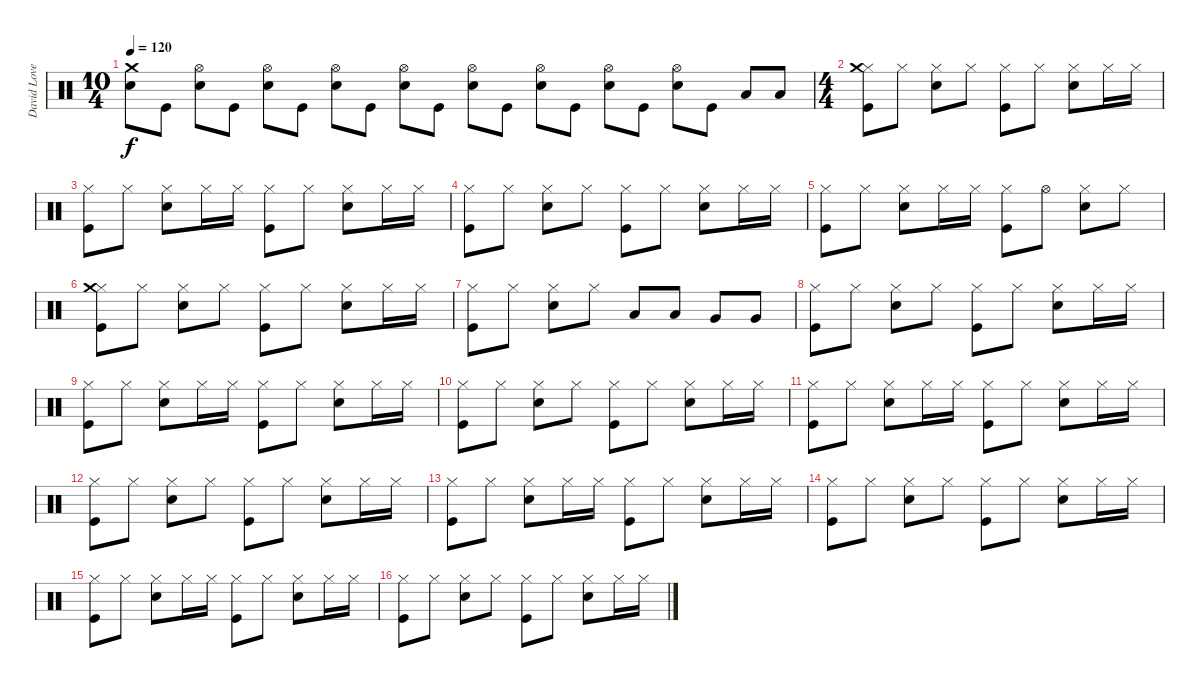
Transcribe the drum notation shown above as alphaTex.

\track ("David Lovering" "David Love") {instrument percussion}
\staff {score}
\articulation defaults
\ts (10 4)
\tempo 120
\clef neutral
\ks c
("Crash medium (hit)" "Snare (hit) 2").8{dy f} "Kick (hit)".8 ("Hi-Hat (open)" "Snare (hit) 2").8 "Kick (hit)".8 ("Hi-Hat (open)" "Snare (hit) 2").8 "Kick (hit)".8 ("Hi-Hat (open)" "Snare (hit) 2").8 "Kick (hit)".8 ("Hi-Hat (open)" "Snare (hit) 2").8 "Kick (hit)".8 ("Hi-Hat (open)" "Snare (hit) 2").8 "Kick (hit)".8 ("Hi-Hat (open)" "Snare (hit) 2").8 "Kick (hit)".8 ("Hi-Hat (open)" "Snare (hit) 2").8 "Kick (hit)".8 ("Hi-Hat (open)" "Snare (hit) 2").8 "Kick (hit)".8 "Low Tom (hit)".8 "Low Tom (hit)".8 |
\ts (4 4)
\section ("" "")
("Hi-Hat (closed)" "Crash medium (hit)" "Kick (hit)").8 "Hi-Hat (closed)".8 ("Hi-Hat (closed)" "Snare (hit) 2").8 "Hi-Hat (closed)".8 ("Hi-Hat (closed)" "Kick (hit)").8 "Hi-Hat (closed)".8 ("Hi-Hat (closed)" "Snare (hit) 2").8 "Hi-Hat (closed)".16 "Hi-Hat (closed)".16 |
("Hi-Hat (closed)" "Kick (hit)").8 "Hi-Hat (closed)".8 ("Hi-Hat (closed)" "Snare (hit) 2").8 "Hi-Hat (closed)".16 "Hi-Hat (closed)".16 ("Hi-Hat (closed)" "Kick (hit)").8 "Hi-Hat (closed)".8 ("Hi-Hat (closed)" "Snare (hit) 2").8 "Hi-Hat (closed)".16 "Hi-Hat (closed)".16 |
("Hi-Hat (closed)" "Kick (hit)").8 "Hi-Hat (closed)".8 ("Hi-Hat (closed)" "Snare (hit) 2").8 "Hi-Hat (closed)".8 ("Hi-Hat (closed)" "Kick (hit)").8 "Hi-Hat (closed)".8 ("Hi-Hat (closed)" "Snare (hit) 2").8 "Hi-Hat (closed)".16 "Hi-Hat (closed)".16 |
("Hi-Hat (closed)" "Kick (hit)").8 "Hi-Hat (closed)".8 ("Hi-Hat (closed)" "Snare (hit) 2").8 "Hi-Hat (closed)".16 "Hi-Hat (closed)".16 ("Hi-Hat (closed)" "Kick (hit)").8 "Hi-Hat (open)".8 ("Hi-Hat (closed)" "Snare (hit) 2").8 "Hi-Hat (closed)".8 |
("Hi-Hat (closed)" "Crash medium (hit)" "Kick (hit)").8 "Hi-Hat (closed)".8 ("Hi-Hat (closed)" "Snare (hit) 2").8 "Hi-Hat (closed)".8 ("Hi-Hat (closed)" "Kick (hit)").8 "Hi-Hat (closed)".8 ("Hi-Hat (closed)" "Snare (hit) 2").8 "Hi-Hat (closed)".16 "Hi-Hat (closed)".16 |
("Hi-Hat (closed)" "Kick (hit)").8 "Hi-Hat (closed)".8 ("Hi-Hat (closed)" "Snare (hit) 2").8 "Hi-Hat (closed)".8 "Low Tom (hit)".8 "Low Tom (hit)".8 "Very Low Tom (hit)".8 "Very Low Tom (hit)".8 |
\section ("" "")
("Hi-Hat (closed)" "Kick (hit)").8 "Hi-Hat (closed)".8 ("Hi-Hat (closed)" "Snare (hit) 2").8 "Hi-Hat (closed)".8 ("Hi-Hat (closed)" "Kick (hit)").8 "Hi-Hat (closed)".8 ("Hi-Hat (closed)" "Snare (hit) 2").8 "Hi-Hat (closed)".16 "Hi-Hat (closed)".16 |
("Hi-Hat (closed)" "Kick (hit)").8 "Hi-Hat (closed)".8 ("Hi-Hat (closed)" "Snare (hit) 2").8 "Hi-Hat (closed)".16 "Hi-Hat (closed)".16 ("Hi-Hat (closed)" "Kick (hit)").8 "Hi-Hat (closed)".8 ("Hi-Hat (closed)" "Snare (hit) 2").8 "Hi-Hat (closed)".16 "Hi-Hat (closed)".16 |
("Hi-Hat (closed)" "Kick (hit)").8 "Hi-Hat (closed)".8 ("Hi-Hat (closed)" "Snare (hit) 2").8 "Hi-Hat (closed)".8 ("Hi-Hat (closed)" "Kick (hit)").8 "Hi-Hat (closed)".8 ("Hi-Hat (closed)" "Snare (hit) 2").8 "Hi-Hat (closed)".16 "Hi-Hat (closed)".16 |
("Hi-Hat (closed)" "Kick (hit)").8 "Hi-Hat (closed)".8 ("Hi-Hat (closed)" "Snare (hit) 2").8 "Hi-Hat (closed)".16 "Hi-Hat (closed)".16 ("Hi-Hat (closed)" "Kick (hit)").8 "Hi-Hat (closed)".8 ("Hi-Hat (closed)" "Snare (hit) 2").8 "Hi-Hat (closed)".16 "Hi-Hat (closed)".16 |
("Hi-Hat (closed)" "Kick (hit)").8 "Hi-Hat (closed)".8 ("Hi-Hat (closed)" "Snare (hit) 2").8 "Hi-Hat (closed)".8 ("Hi-Hat (closed)" "Kick (hit)").8 "Hi-Hat (closed)".8 ("Hi-Hat (closed)" "Snare (hit) 2").8 "Hi-Hat (closed)".16 "Hi-Hat (closed)".16 |
("Hi-Hat (closed)" "Kick (hit)").8 "Hi-Hat (closed)".8 ("Hi-Hat (closed)" "Snare (hit) 2").8 "Hi-Hat (closed)".16 "Hi-Hat (closed)".16 ("Hi-Hat (closed)" "Kick (hit)").8 "Hi-Hat (closed)".8 ("Hi-Hat (closed)" "Snare (hit) 2").8 "Hi-Hat (closed)".16 "Hi-Hat (closed)".16 |
("Hi-Hat (closed)" "Kick (hit)").8 "Hi-Hat (closed)".8 ("Hi-Hat (closed)" "Snare (hit) 2").8 "Hi-Hat (closed)".8 ("Hi-Hat (closed)" "Kick (hit)").8 "Hi-Hat (closed)".8 ("Hi-Hat (closed)" "Snare (hit) 2").8 "Hi-Hat (closed)".16 "Hi-Hat (closed)".16 |
("Hi-Hat (closed)" "Kick (hit)").8 "Hi-Hat (closed)".8 ("Hi-Hat (closed)" "Snare (hit) 2").8 "Hi-Hat (closed)".16 "Hi-Hat (closed)".16 ("Hi-Hat (closed)" "Kick (hit)").8 "Hi-Hat (closed)".8 ("Hi-Hat (closed)" "Snare (hit) 2").8 "Hi-Hat (closed)".16 "Hi-Hat (closed)".16 |
("Hi-Hat (closed)" "Kick (hit)").8 "Hi-Hat (closed)".8 ("Hi-Hat (closed)" "Snare (hit) 2").8 "Hi-Hat (closed)".8 ("Hi-Hat (closed)" "Kick (hit)").8 "Hi-Hat (closed)".8 ("Hi-Hat (closed)" "Snare (hit) 2").8 "Hi-Hat (closed)".16 "Hi-Hat (closed)".16
